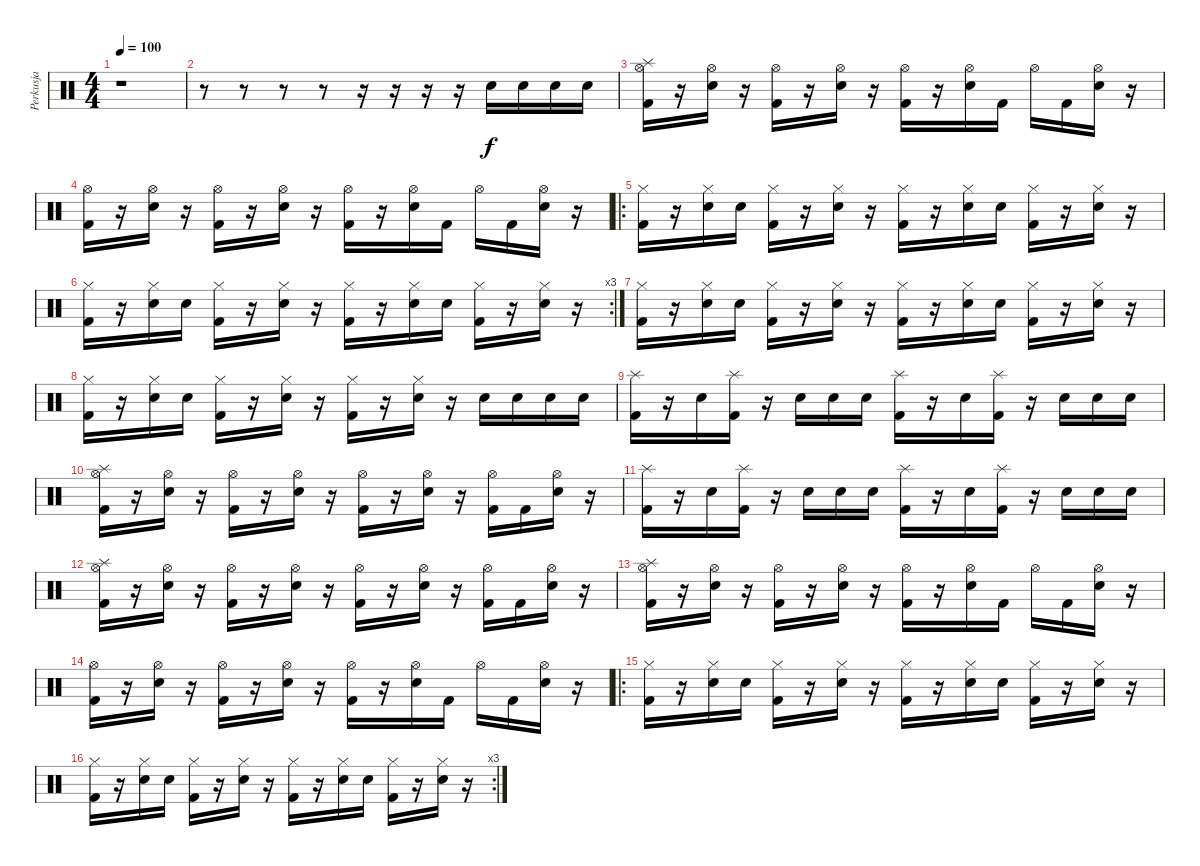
\track ("Perkusja" "Perkusja") {instrument percussion}
\staff {score}
\articulation defaults
\ts (4 4)
\tempo 100
\clef neutral
\ks c
r.1{dy f} |
r.8 r.8 r.8 r.8 r.16 r.16 r.16 r.16 "Electric Snare (hit)".16 "Electric Snare (hit)".16 "Electric Snare (hit)".16 "Electric Snare (hit)".16 |
("Splash (hit)" "Hi-Hat (open)" "Kick (hit) 2").16 r.16 ("Hi-Hat (open)" "Electric Snare (hit)").16 r.16 ("Hi-Hat (open)" "Kick (hit) 2").16 r.16 ("Hi-Hat (open)" "Electric Snare (hit)").16 r.16 ("Hi-Hat (open)" "Kick (hit) 2").16 r.16 ("Hi-Hat (open)" "Electric Snare (hit)").16 "Kick (hit) 2".16 "Hi-Hat (open)".16 "Kick (hit) 2".16 ("Hi-Hat (open)" "Electric Snare (hit)").16 r.16 |
("Hi-Hat (open)" "Kick (hit) 2").16 r.16 ("Hi-Hat (open)" "Electric Snare (hit)").16 r.16 ("Hi-Hat (open)" "Kick (hit) 2").16 r.16 ("Hi-Hat (open)" "Electric Snare (hit)").16 r.16 ("Hi-Hat (open)" "Kick (hit) 2").16 r.16 ("Hi-Hat (open)" "Electric Snare (hit)").16 "Kick (hit) 2".16 "Hi-Hat (open)".16 "Kick (hit) 2".16 ("Hi-Hat (open)" "Electric Snare (hit)").16 r.16 |
\ro
("Hi-Hat (closed)" "Kick (hit) 2").16 r.16 ("Hi-Hat (closed)" "Electric Snare (hit)").16 "Electric Snare (hit)".16 ("Hi-Hat (closed)" "Kick (hit) 2").16 r.16 ("Hi-Hat (closed)" "Electric Snare (hit)").16 r.16 ("Hi-Hat (closed)" "Kick (hit) 2").16 r.16 ("Hi-Hat (closed)" "Electric Snare (hit)").16 "Electric Snare (hit)".16 ("Hi-Hat (closed)" "Kick (hit) 2").16 r.16 ("Hi-Hat (closed)" "Electric Snare (hit)").16 r.16 |
\rc 3
("Hi-Hat (closed)" "Kick (hit) 2").16 r.16 ("Hi-Hat (closed)" "Electric Snare (hit)").16 "Electric Snare (hit)".16 ("Hi-Hat (closed)" "Kick (hit) 2").16 r.16 ("Hi-Hat (closed)" "Electric Snare (hit)").16 r.16 ("Hi-Hat (closed)" "Kick (hit) 2").16 r.16 ("Hi-Hat (closed)" "Electric Snare (hit)").16 "Electric Snare (hit)".16 ("Hi-Hat (closed)" "Kick (hit) 2").16 r.16 ("Hi-Hat (closed)" "Electric Snare (hit)").16 r.16 |
("Hi-Hat (closed)" "Kick (hit) 2").16 r.16 ("Hi-Hat (closed)" "Electric Snare (hit)").16 "Electric Snare (hit)".16 ("Hi-Hat (closed)" "Kick (hit) 2").16 r.16 ("Hi-Hat (closed)" "Electric Snare (hit)").16 r.16 ("Hi-Hat (closed)" "Kick (hit) 2").16 r.16 ("Hi-Hat (closed)" "Electric Snare (hit)").16 "Electric Snare (hit)".16 ("Hi-Hat (closed)" "Kick (hit) 2").16 r.16 ("Hi-Hat (closed)" "Electric Snare (hit)").16 r.16 |
("Hi-Hat (closed)" "Kick (hit) 2").16 r.16 ("Hi-Hat (closed)" "Electric Snare (hit)").16 "Electric Snare (hit)".16 ("Hi-Hat (closed)" "Kick (hit) 2").16 r.16 ("Hi-Hat (closed)" "Electric Snare (hit)").16 r.16 ("Hi-Hat (closed)" "Kick (hit) 2").16 r.16 ("Hi-Hat (closed)" "Electric Snare (hit)").16 r.16 "Electric Snare (hit)".16 "Electric Snare (hit)".16 "Electric Snare (hit)".16 "Electric Snare (hit)".16 |
("Splash (hit)" "Kick (hit) 2").16 r.16 "Electric Snare (hit)".16 ("Splash (hit)" "Kick (hit) 2").16 r.16 "Electric Snare (hit)".16 "Electric Snare (hit)".16 "Electric Snare (hit)".16 ("Splash (hit)" "Kick (hit) 2").16 r.16 "Electric Snare (hit)".16 ("Splash (hit)" "Kick (hit) 2").16 r.16 "Electric Snare (hit)".16 "Electric Snare (hit)".16 "Electric Snare (hit)".16 |
("Splash (hit)" "Hi-Hat (open)" "Kick (hit) 2").16 r.16 ("Hi-Hat (open)" "Electric Snare (hit)").16 r.16 ("Hi-Hat (open)" "Kick (hit) 2").16 r.16 ("Hi-Hat (open)" "Electric Snare (hit)").16 r.16 ("Hi-Hat (open)" "Kick (hit) 2").16 r.16 ("Hi-Hat (open)" "Electric Snare (hit)").16 r.16 ("Hi-Hat (open)" "Kick (hit) 2").16 "Kick (hit) 2".16 ("Hi-Hat (open)" "Electric Snare (hit)").16 r.16 |
("Splash (hit)" "Kick (hit) 2").16 r.16 "Electric Snare (hit)".16 ("Splash (hit)" "Kick (hit) 2").16 r.16 "Electric Snare (hit)".16 "Electric Snare (hit)".16 "Electric Snare (hit)".16 ("Splash (hit)" "Kick (hit) 2").16 r.16 "Electric Snare (hit)".16 ("Splash (hit)" "Kick (hit) 2").16 r.16 "Electric Snare (hit)".16 "Electric Snare (hit)".16 "Electric Snare (hit)".16 |
("Splash (hit)" "Hi-Hat (open)" "Kick (hit) 2").16 r.16 ("Hi-Hat (open)" "Electric Snare (hit)").16 r.16 ("Hi-Hat (open)" "Kick (hit) 2").16 r.16 ("Hi-Hat (open)" "Electric Snare (hit)").16 r.16 ("Hi-Hat (open)" "Kick (hit) 2").16 r.16 ("Hi-Hat (open)" "Electric Snare (hit)").16 r.16 ("Hi-Hat (open)" "Kick (hit) 2").16 "Kick (hit) 2".16 ("Hi-Hat (open)" "Electric Snare (hit)").16 r.16 |
("Splash (hit)" "Hi-Hat (open)" "Kick (hit) 2").16 r.16 ("Hi-Hat (open)" "Electric Snare (hit)").16 r.16 ("Hi-Hat (open)" "Kick (hit) 2").16 r.16 ("Hi-Hat (open)" "Electric Snare (hit)").16 r.16 ("Hi-Hat (open)" "Kick (hit) 2").16 r.16 ("Hi-Hat (open)" "Electric Snare (hit)").16 "Kick (hit) 2".16 "Hi-Hat (open)".16 "Kick (hit) 2".16 ("Hi-Hat (open)" "Electric Snare (hit)").16 r.16 |
("Hi-Hat (open)" "Kick (hit) 2").16 r.16 ("Hi-Hat (open)" "Electric Snare (hit)").16 r.16 ("Hi-Hat (open)" "Kick (hit) 2").16 r.16 ("Hi-Hat (open)" "Electric Snare (hit)").16 r.16 ("Hi-Hat (open)" "Kick (hit) 2").16 r.16 ("Hi-Hat (open)" "Electric Snare (hit)").16 "Kick (hit) 2".16 "Hi-Hat (open)".16 "Kick (hit) 2".16 ("Hi-Hat (open)" "Electric Snare (hit)").16 r.16 |
\ro
("Hi-Hat (closed)" "Kick (hit) 2").16 r.16 ("Hi-Hat (closed)" "Electric Snare (hit)").16 "Electric Snare (hit)".16 ("Hi-Hat (closed)" "Kick (hit) 2").16 r.16 ("Hi-Hat (closed)" "Electric Snare (hit)").16 r.16 ("Hi-Hat (closed)" "Kick (hit) 2").16 r.16 ("Hi-Hat (closed)" "Electric Snare (hit)").16 "Electric Snare (hit)".16 ("Hi-Hat (closed)" "Kick (hit) 2").16 r.16 ("Hi-Hat (closed)" "Electric Snare (hit)").16 r.16 |
\rc 3
("Hi-Hat (closed)" "Kick (hit) 2").16 r.16 ("Hi-Hat (closed)" "Electric Snare (hit)").16 "Electric Snare (hit)".16 ("Hi-Hat (closed)" "Kick (hit) 2").16 r.16 ("Hi-Hat (closed)" "Electric Snare (hit)").16 r.16 ("Hi-Hat (closed)" "Kick (hit) 2").16 r.16 ("Hi-Hat (closed)" "Electric Snare (hit)").16 "Electric Snare (hit)".16 ("Hi-Hat (closed)" "Kick (hit) 2").16 r.16 ("Hi-Hat (closed)" "Electric Snare (hit)").16 r.16
